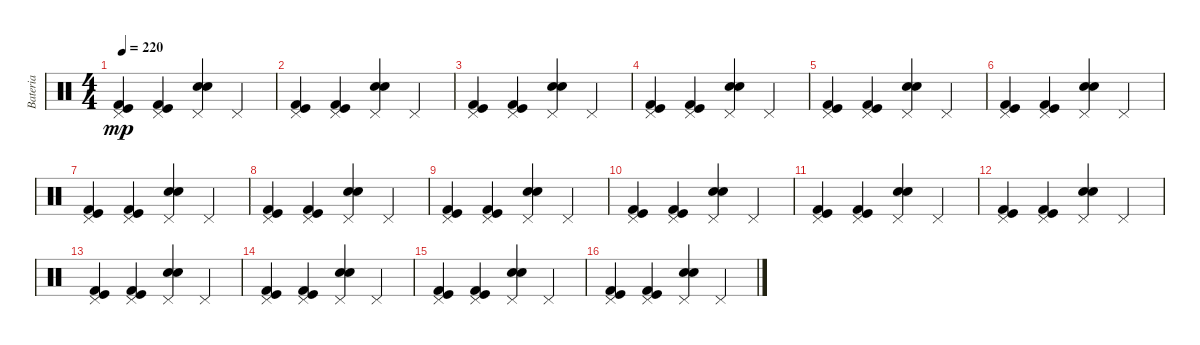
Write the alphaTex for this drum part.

\track ("Bateria" "Bateria") {instrument percussion}
\staff {score}
\articulation defaults
\ts (4 4)
\tempo 220
\clef neutral
\ks c
("Pedal Hi-Hat (hit)" "Kick (hit) 2" "Kick (hit)").4{dy mp} ("Pedal Hi-Hat (hit)" "Kick (hit) 2" "Kick (hit)").4 ("Pedal Hi-Hat (hit)" "Snare (hit) 2" "Electric Snare (hit)").4 "Pedal Hi-Hat (hit)".4 |
("Pedal Hi-Hat (hit)" "Kick (hit) 2" "Kick (hit)").4 ("Pedal Hi-Hat (hit)" "Kick (hit) 2" "Kick (hit)").4 ("Pedal Hi-Hat (hit)" "Snare (hit) 2" "Electric Snare (hit)").4 "Pedal Hi-Hat (hit)".4 |
("Pedal Hi-Hat (hit)" "Kick (hit) 2" "Kick (hit)").4 ("Pedal Hi-Hat (hit)" "Kick (hit) 2" "Kick (hit)").4 ("Pedal Hi-Hat (hit)" "Snare (hit) 2" "Electric Snare (hit)").4 "Pedal Hi-Hat (hit)".4 |
("Pedal Hi-Hat (hit)" "Kick (hit) 2" "Kick (hit)").4 ("Pedal Hi-Hat (hit)" "Kick (hit) 2" "Kick (hit)").4 ("Pedal Hi-Hat (hit)" "Snare (hit) 2" "Electric Snare (hit)").4 "Pedal Hi-Hat (hit)".4 |
("Pedal Hi-Hat (hit)" "Kick (hit) 2" "Kick (hit)").4 ("Pedal Hi-Hat (hit)" "Kick (hit) 2" "Kick (hit)").4 ("Pedal Hi-Hat (hit)" "Snare (hit) 2" "Electric Snare (hit)").4 "Pedal Hi-Hat (hit)".4 |
("Pedal Hi-Hat (hit)" "Kick (hit) 2" "Kick (hit)").4 ("Pedal Hi-Hat (hit)" "Kick (hit) 2" "Kick (hit)").4 ("Pedal Hi-Hat (hit)" "Snare (hit) 2" "Electric Snare (hit)").4 "Pedal Hi-Hat (hit)".4 |
("Pedal Hi-Hat (hit)" "Kick (hit) 2" "Kick (hit)").4 ("Pedal Hi-Hat (hit)" "Kick (hit) 2" "Kick (hit)").4 ("Pedal Hi-Hat (hit)" "Snare (hit) 2" "Electric Snare (hit)").4 "Pedal Hi-Hat (hit)".4 |
("Pedal Hi-Hat (hit)" "Kick (hit) 2" "Kick (hit)").4 ("Pedal Hi-Hat (hit)" "Kick (hit) 2" "Kick (hit)").4 ("Pedal Hi-Hat (hit)" "Snare (hit) 2" "Electric Snare (hit)").4 "Pedal Hi-Hat (hit)".4 |
("Pedal Hi-Hat (hit)" "Kick (hit) 2" "Kick (hit)").4 ("Pedal Hi-Hat (hit)" "Kick (hit) 2" "Kick (hit)").4 ("Pedal Hi-Hat (hit)" "Snare (hit) 2" "Electric Snare (hit)").4 "Pedal Hi-Hat (hit)".4 |
("Pedal Hi-Hat (hit)" "Kick (hit) 2" "Kick (hit)").4 ("Pedal Hi-Hat (hit)" "Kick (hit) 2" "Kick (hit)").4 ("Pedal Hi-Hat (hit)" "Snare (hit) 2" "Electric Snare (hit)").4 "Pedal Hi-Hat (hit)".4 |
("Pedal Hi-Hat (hit)" "Kick (hit) 2" "Kick (hit)").4 ("Pedal Hi-Hat (hit)" "Kick (hit) 2" "Kick (hit)").4 ("Pedal Hi-Hat (hit)" "Snare (hit) 2" "Electric Snare (hit)").4 "Pedal Hi-Hat (hit)".4 |
("Pedal Hi-Hat (hit)" "Kick (hit) 2" "Kick (hit)").4 ("Pedal Hi-Hat (hit)" "Kick (hit) 2" "Kick (hit)").4 ("Pedal Hi-Hat (hit)" "Snare (hit) 2" "Electric Snare (hit)").4 "Pedal Hi-Hat (hit)".4 |
("Pedal Hi-Hat (hit)" "Kick (hit) 2" "Kick (hit)").4 ("Pedal Hi-Hat (hit)" "Kick (hit) 2" "Kick (hit)").4 ("Pedal Hi-Hat (hit)" "Snare (hit) 2" "Electric Snare (hit)").4 "Pedal Hi-Hat (hit)".4 |
("Pedal Hi-Hat (hit)" "Kick (hit) 2" "Kick (hit)").4 ("Pedal Hi-Hat (hit)" "Kick (hit) 2" "Kick (hit)").4 ("Pedal Hi-Hat (hit)" "Snare (hit) 2" "Electric Snare (hit)").4 "Pedal Hi-Hat (hit)".4 |
("Pedal Hi-Hat (hit)" "Kick (hit) 2" "Kick (hit)").4 ("Pedal Hi-Hat (hit)" "Kick (hit) 2" "Kick (hit)").4 ("Pedal Hi-Hat (hit)" "Snare (hit) 2" "Electric Snare (hit)").4 "Pedal Hi-Hat (hit)".4 |
("Pedal Hi-Hat (hit)" "Kick (hit) 2" "Kick (hit)").4 ("Pedal Hi-Hat (hit)" "Kick (hit) 2" "Kick (hit)").4 ("Pedal Hi-Hat (hit)" "Snare (hit) 2" "Electric Snare (hit)").4 "Pedal Hi-Hat (hit)".4
